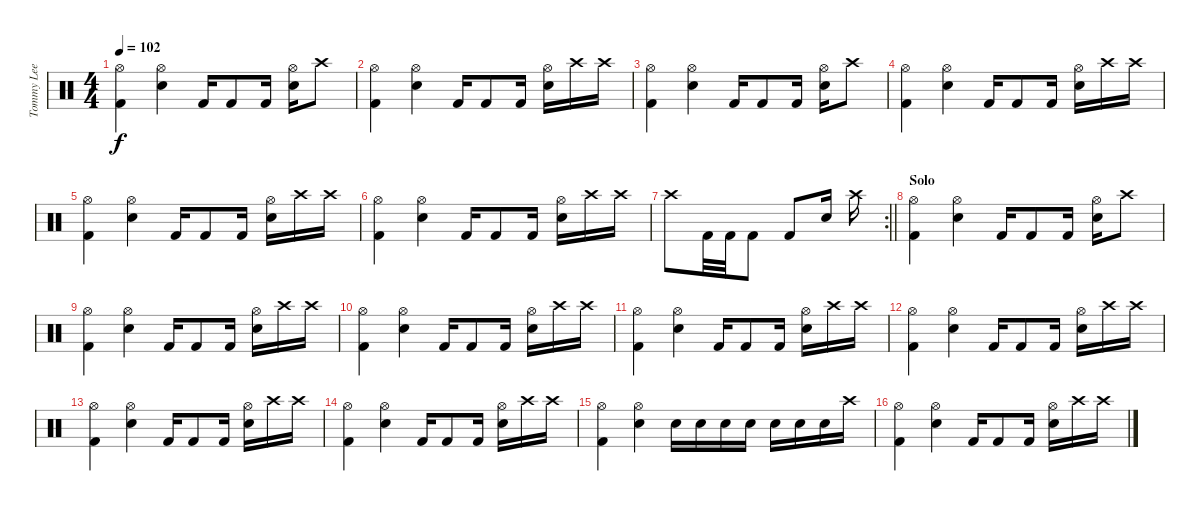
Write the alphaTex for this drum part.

\track ("Tommy Lee" "Tommy Lee") {instrument percussion}
\staff {score}
\articulation defaults
\ts (4 4)
\tempo 102
\clef neutral
\ks c
("Hi-Hat (open)" "Kick (hit) 2").4{dy f} ("Hi-Hat (open)" "Snare (hit) 2").4 "Kick (hit) 2".16 "Kick (hit) 2".8 "Kick (hit) 2".16 ("Hi-Hat (open)" "Snare (hit) 2").16 "Crash high (hit)".8 |
("Hi-Hat (open)" "Kick (hit) 2").4 ("Hi-Hat (open)" "Snare (hit) 2").4 "Kick (hit) 2".16 "Kick (hit) 2".8 "Kick (hit) 2".16 ("Hi-Hat (open)" "Snare (hit) 2").16 "Crash high (hit)".16 "Crash high (hit)".16 |
("Hi-Hat (open)" "Kick (hit) 2").4 ("Hi-Hat (open)" "Snare (hit) 2").4 "Kick (hit) 2".16 "Kick (hit) 2".8 "Kick (hit) 2".16 ("Hi-Hat (open)" "Snare (hit) 2").16 "Crash high (hit)".8 |
("Hi-Hat (open)" "Kick (hit) 2").4 ("Hi-Hat (open)" "Snare (hit) 2").4 "Kick (hit) 2".16 "Kick (hit) 2".8 "Kick (hit) 2".16 ("Hi-Hat (open)" "Snare (hit) 2").16 "Crash high (hit)".16 "Crash high (hit)".16 |
("Hi-Hat (open)" "Kick (hit) 2").4 ("Hi-Hat (open)" "Snare (hit) 2").4 "Kick (hit) 2".16 "Kick (hit) 2".8 "Kick (hit) 2".16 ("Hi-Hat (open)" "Snare (hit) 2").16 "Crash high (hit)".16 "Crash high (hit)".16 |
("Hi-Hat (open)" "Kick (hit) 2").4 ("Hi-Hat (open)" "Snare (hit) 2").4 "Kick (hit) 2".16 "Kick (hit) 2".8 "Kick (hit) 2".16 ("Hi-Hat (open)" "Snare (hit) 2").16 "Crash high (hit)".16 "Crash high (hit)".16 |
\rc 2
\barLineRight lightlight "Crash high (hit)".8 "Kick (hit) 2".32 "Kick (hit) 2".32 "Kick (hit) 2".8 "Kick (hit) 2".8 "Snare (hit) 2".16 "Crash high (hit)".16
|
\section ("" "Solo")
("Hi-Hat (open)" "Kick (hit) 2").4 ("Hi-Hat (open)" "Snare (hit) 2").4 "Kick (hit) 2".16 "Kick (hit) 2".8 "Kick (hit) 2".16 ("Hi-Hat (open)" "Snare (hit) 2").16 "Crash high (hit)".8 |
("Hi-Hat (open)" "Kick (hit) 2").4 ("Hi-Hat (open)" "Snare (hit) 2").4 "Kick (hit) 2".16 "Kick (hit) 2".8 "Kick (hit) 2".16 ("Hi-Hat (open)" "Snare (hit) 2").16 "Crash high (hit)".16 "Crash high (hit)".16 |
("Hi-Hat (open)" "Kick (hit) 2").4 ("Hi-Hat (open)" "Snare (hit) 2").4 "Kick (hit) 2".16 "Kick (hit) 2".8 "Kick (hit) 2".16 ("Hi-Hat (open)" "Snare (hit) 2").16 "Crash high (hit)".16 "Crash high (hit)".16 |
("Hi-Hat (open)" "Kick (hit) 2").4 ("Hi-Hat (open)" "Snare (hit) 2").4 "Kick (hit) 2".16 "Kick (hit) 2".8 "Kick (hit) 2".16 ("Hi-Hat (open)" "Snare (hit) 2").16 "Crash high (hit)".16 "Crash high (hit)".16 |
("Hi-Hat (open)" "Kick (hit) 2").4 ("Hi-Hat (open)" "Snare (hit) 2").4 "Kick (hit) 2".16 "Kick (hit) 2".8 "Kick (hit) 2".16 ("Hi-Hat (open)" "Snare (hit) 2").16 "Crash high (hit)".16 "Crash high (hit)".16 |
("Hi-Hat (open)" "Kick (hit) 2").4 ("Hi-Hat (open)" "Snare (hit) 2").4 "Kick (hit) 2".16 "Kick (hit) 2".8 "Kick (hit) 2".16 ("Hi-Hat (open)" "Snare (hit) 2").16 "Crash high (hit)".16 "Crash high (hit)".16 |
("Hi-Hat (open)" "Kick (hit) 2").4 ("Hi-Hat (open)" "Snare (hit) 2").4 "Kick (hit) 2".16 "Kick (hit) 2".8 "Kick (hit) 2".16 ("Hi-Hat (open)" "Snare (hit) 2").16 "Crash high (hit)".16 "Crash high (hit)".16 |
("Hi-Hat (open)" "Kick (hit) 2").4 ("Hi-Hat (open)" "Snare (hit) 2").4 "Electric Snare (hit)".16 "Electric Snare (hit)".16 "Electric Snare (hit)".16 "Electric Snare (hit)".16 "Electric Snare (hit)".16 "Electric Snare (hit)".16 "Electric Snare (hit)".16 "Crash high (hit)".16 |
("Hi-Hat (open)" "Kick (hit) 2").4 ("Hi-Hat (open)" "Snare (hit) 2").4 "Kick (hit) 2".16 "Kick (hit) 2".8 "Kick (hit) 2".16 ("Hi-Hat (open)" "Snare (hit) 2").16 "Crash high (hit)".16 "Crash high (hit)".16
